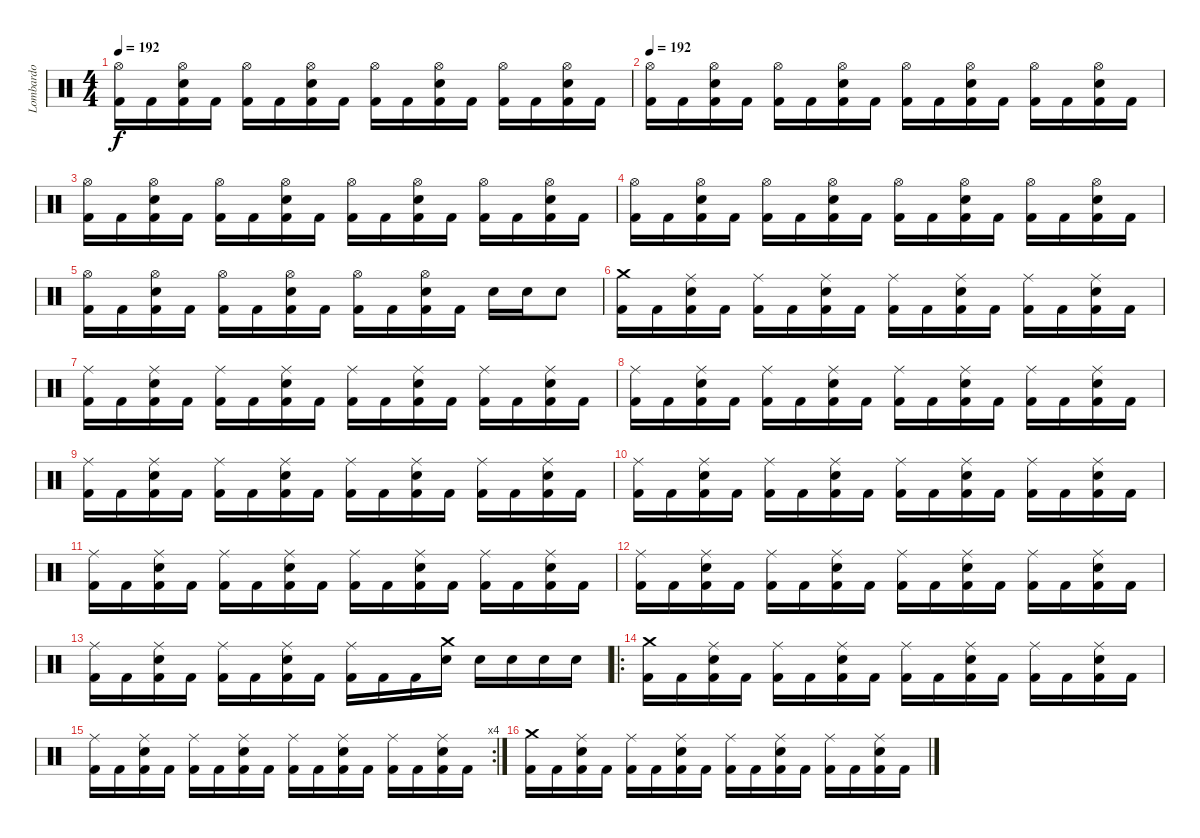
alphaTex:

\track ("Lombardo" "Lombardo") {instrument percussion}
\staff {score}
\articulation defaults
\ts (4 4)
\tempo 192
\clef neutral
\ks c
("Hi-Hat (open)" "Kick (hit) 2").16{dy f} "Kick (hit) 2".16 ("Hi-Hat (open)" "Snare (hit) 2" "Kick (hit) 2").16 "Kick (hit) 2".16 ("Hi-Hat (open)" "Kick (hit) 2").16 "Kick (hit) 2".16 ("Hi-Hat (open)" "Snare (hit) 2" "Kick (hit) 2").16 "Kick (hit) 2".16 ("Hi-Hat (open)" "Kick (hit) 2").16 "Kick (hit) 2".16 ("Hi-Hat (open)" "Snare (hit) 2" "Kick (hit) 2").16 "Kick (hit) 2".16 ("Hi-Hat (open)" "Kick (hit) 2").16 "Kick (hit) 2".16 ("Hi-Hat (open)" "Snare (hit) 2" "Kick (hit) 2").16 "Kick (hit) 2".16 |
\tempo 192
("Hi-Hat (open)" "Kick (hit) 2").16 "Kick (hit) 2".16 ("Hi-Hat (open)" "Snare (hit) 2" "Kick (hit) 2").16 "Kick (hit) 2".16 ("Hi-Hat (open)" "Kick (hit) 2").16 "Kick (hit) 2".16 ("Hi-Hat (open)" "Snare (hit) 2" "Kick (hit) 2").16 "Kick (hit) 2".16 ("Hi-Hat (open)" "Kick (hit) 2").16 "Kick (hit) 2".16 ("Hi-Hat (open)" "Snare (hit) 2" "Kick (hit) 2").16 "Kick (hit) 2".16 ("Hi-Hat (open)" "Kick (hit) 2").16 "Kick (hit) 2".16 ("Hi-Hat (open)" "Snare (hit) 2" "Kick (hit) 2").16 "Kick (hit) 2".16 |
("Hi-Hat (open)" "Kick (hit) 2").16 "Kick (hit) 2".16 ("Hi-Hat (open)" "Snare (hit) 2" "Kick (hit) 2").16 "Kick (hit) 2".16 ("Hi-Hat (open)" "Kick (hit) 2").16 "Kick (hit) 2".16 ("Hi-Hat (open)" "Snare (hit) 2" "Kick (hit) 2").16 "Kick (hit) 2".16 ("Hi-Hat (open)" "Kick (hit) 2").16 "Kick (hit) 2".16 ("Hi-Hat (open)" "Snare (hit) 2" "Kick (hit) 2").16 "Kick (hit) 2".16 ("Hi-Hat (open)" "Kick (hit) 2").16 "Kick (hit) 2".16 ("Hi-Hat (open)" "Snare (hit) 2" "Kick (hit) 2").16 "Kick (hit) 2".16 |
("Hi-Hat (open)" "Kick (hit) 2").16 "Kick (hit) 2".16 ("Hi-Hat (open)" "Snare (hit) 2" "Kick (hit) 2").16 "Kick (hit) 2".16 ("Hi-Hat (open)" "Kick (hit) 2").16 "Kick (hit) 2".16 ("Hi-Hat (open)" "Snare (hit) 2" "Kick (hit) 2").16 "Kick (hit) 2".16 ("Hi-Hat (open)" "Kick (hit) 2").16 "Kick (hit) 2".16 ("Hi-Hat (open)" "Snare (hit) 2" "Kick (hit) 2").16 "Kick (hit) 2".16 ("Hi-Hat (open)" "Kick (hit) 2").16 "Kick (hit) 2".16 ("Hi-Hat (open)" "Snare (hit) 2" "Kick (hit) 2").16 "Kick (hit) 2".16 |
("Hi-Hat (open)" "Kick (hit) 2").16 "Kick (hit) 2".16 ("Hi-Hat (open)" "Snare (hit) 2" "Kick (hit) 2").16 "Kick (hit) 2".16 ("Hi-Hat (open)" "Kick (hit) 2").16 "Kick (hit) 2".16 ("Hi-Hat (open)" "Snare (hit) 2" "Kick (hit) 2").16 "Kick (hit) 2".16 ("Hi-Hat (open)" "Kick (hit) 2").16 "Kick (hit) 2".16 ("Hi-Hat (open)" "Snare (hit) 2" "Kick (hit) 2").16 "Kick (hit) 2".16 "Snare (hit) 2".16 "Snare (hit) 2".16 "Snare (hit) 2".8 |
("Crash medium (hit)" "Kick (hit) 2").16 "Kick (hit) 2".16 ("Ride (middle)" "Snare (hit) 2" "Kick (hit) 2").16 "Kick (hit) 2".16 ("Ride (middle)" "Kick (hit) 2").16 "Kick (hit) 2".16 ("Ride (middle)" "Snare (hit) 2" "Kick (hit) 2").16 "Kick (hit) 2".16 ("Ride (middle)" "Kick (hit) 2").16 "Kick (hit) 2".16 ("Ride (middle)" "Snare (hit) 2" "Kick (hit) 2").16 "Kick (hit) 2".16 ("Ride (middle)" "Kick (hit) 2").16 "Kick (hit) 2".16 ("Ride (middle)" "Snare (hit) 2" "Kick (hit) 2").16 "Kick (hit) 2".16 |
("Ride (middle)" "Kick (hit) 2").16 "Kick (hit) 2".16 ("Ride (middle)" "Snare (hit) 2" "Kick (hit) 2").16 "Kick (hit) 2".16 ("Ride (middle)" "Kick (hit) 2").16 "Kick (hit) 2".16 ("Ride (middle)" "Snare (hit) 2" "Kick (hit) 2").16 "Kick (hit) 2".16 ("Ride (middle)" "Kick (hit) 2").16 "Kick (hit) 2".16 ("Ride (middle)" "Snare (hit) 2" "Kick (hit) 2").16 "Kick (hit) 2".16 ("Ride (middle)" "Kick (hit) 2").16 "Kick (hit) 2".16 ("Ride (middle)" "Snare (hit) 2" "Kick (hit) 2").16 "Kick (hit) 2".16 |
("Ride (middle)" "Kick (hit) 2").16 "Kick (hit) 2".16 ("Ride (middle)" "Snare (hit) 2" "Kick (hit) 2").16 "Kick (hit) 2".16 ("Ride (middle)" "Kick (hit) 2").16 "Kick (hit) 2".16 ("Ride (middle)" "Snare (hit) 2" "Kick (hit) 2").16 "Kick (hit) 2".16 ("Ride (middle)" "Kick (hit) 2").16 "Kick (hit) 2".16 ("Ride (middle)" "Snare (hit) 2" "Kick (hit) 2").16 "Kick (hit) 2".16 ("Ride (middle)" "Kick (hit) 2").16 "Kick (hit) 2".16 ("Ride (middle)" "Snare (hit) 2" "Kick (hit) 2").16 "Kick (hit) 2".16 |
("Ride (middle)" "Kick (hit) 2").16 "Kick (hit) 2".16 ("Ride (middle)" "Snare (hit) 2" "Kick (hit) 2").16 "Kick (hit) 2".16 ("Ride (middle)" "Kick (hit) 2").16 "Kick (hit) 2".16 ("Ride (middle)" "Snare (hit) 2" "Kick (hit) 2").16 "Kick (hit) 2".16 ("Ride (middle)" "Kick (hit) 2").16 "Kick (hit) 2".16 ("Ride (middle)" "Snare (hit) 2" "Kick (hit) 2").16 "Kick (hit) 2".16 ("Ride (middle)" "Kick (hit) 2").16 "Kick (hit) 2".16 ("Ride (middle)" "Snare (hit) 2" "Kick (hit) 2").16 "Kick (hit) 2".16 |
("Ride (middle)" "Kick (hit) 2").16 "Kick (hit) 2".16 ("Ride (middle)" "Snare (hit) 2" "Kick (hit) 2").16 "Kick (hit) 2".16 ("Ride (middle)" "Kick (hit) 2").16 "Kick (hit) 2".16 ("Ride (middle)" "Snare (hit) 2" "Kick (hit) 2").16 "Kick (hit) 2".16 ("Ride (middle)" "Kick (hit) 2").16 "Kick (hit) 2".16 ("Ride (middle)" "Snare (hit) 2" "Kick (hit) 2").16 "Kick (hit) 2".16 ("Ride (middle)" "Kick (hit) 2").16 "Kick (hit) 2".16 ("Ride (middle)" "Snare (hit) 2" "Kick (hit) 2").16 "Kick (hit) 2".16 |
("Ride (middle)" "Kick (hit) 2").16 "Kick (hit) 2".16 ("Ride (middle)" "Snare (hit) 2" "Kick (hit) 2").16 "Kick (hit) 2".16 ("Ride (middle)" "Kick (hit) 2").16 "Kick (hit) 2".16 ("Ride (middle)" "Snare (hit) 2" "Kick (hit) 2").16 "Kick (hit) 2".16 ("Ride (middle)" "Kick (hit) 2").16 "Kick (hit) 2".16 ("Ride (middle)" "Snare (hit) 2" "Kick (hit) 2").16 "Kick (hit) 2".16 ("Ride (middle)" "Kick (hit) 2").16 "Kick (hit) 2".16 ("Ride (middle)" "Snare (hit) 2" "Kick (hit) 2").16 "Kick (hit) 2".16 |
("Ride (middle)" "Kick (hit) 2").16 "Kick (hit) 2".16 ("Ride (middle)" "Snare (hit) 2" "Kick (hit) 2").16 "Kick (hit) 2".16 ("Ride (middle)" "Kick (hit) 2").16 "Kick (hit) 2".16 ("Ride (middle)" "Snare (hit) 2" "Kick (hit) 2").16 "Kick (hit) 2".16 ("Ride (middle)" "Kick (hit) 2").16 "Kick (hit) 2".16 ("Ride (middle)" "Snare (hit) 2" "Kick (hit) 2").16 "Kick (hit) 2".16 ("Ride (middle)" "Kick (hit) 2").16 "Kick (hit) 2".16 ("Ride (middle)" "Snare (hit) 2" "Kick (hit) 2").16 "Kick (hit) 2".16 |
("Ride (middle)" "Kick (hit) 2").16 "Kick (hit) 2".16 ("Ride (middle)" "Snare (hit) 2" "Kick (hit) 2").16 "Kick (hit) 2".16 ("Ride (middle)" "Kick (hit) 2").16 "Kick (hit) 2".16 ("Ride (middle)" "Snare (hit) 2" "Kick (hit) 2").16 "Kick (hit) 2".16 ("Ride (middle)" "Kick (hit) 2").16 "Kick (hit) 2".16 "Kick (hit) 2".16 ("Crash medium (hit)" "Snare (hit) 2").16 "Snare (hit) 2".16 "Snare (hit) 2".16 "Snare (hit) 2".16 "Snare (hit) 2".16 |
\ro
("Crash medium (hit)" "Kick (hit) 2").16 "Kick (hit) 2".16 ("Ride (middle)" "Snare (hit) 2" "Kick (hit) 2").16 "Kick (hit) 2".16 ("Ride (middle)" "Kick (hit) 2").16 "Kick (hit) 2".16 ("Ride (middle)" "Snare (hit) 2" "Kick (hit) 2").16 "Kick (hit) 2".16 ("Ride (middle)" "Kick (hit) 2").16 "Kick (hit) 2".16 ("Ride (middle)" "Snare (hit) 2" "Kick (hit) 2").16 "Kick (hit) 2".16 ("Ride (middle)" "Kick (hit) 2").16 "Kick (hit) 2".16 ("Ride (middle)" "Snare (hit) 2" "Kick (hit) 2").16 "Kick (hit) 2".16 |
\rc 4
("Ride (middle)" "Kick (hit) 2").16 "Kick (hit) 2".16 ("Ride (middle)" "Snare (hit) 2" "Kick (hit) 2").16 "Kick (hit) 2".16 ("Ride (middle)" "Kick (hit) 2").16 "Kick (hit) 2".16 ("Ride (middle)" "Snare (hit) 2" "Kick (hit) 2").16 "Kick (hit) 2".16 ("Ride (middle)" "Kick (hit) 2").16 "Kick (hit) 2".16 ("Ride (middle)" "Snare (hit) 2" "Kick (hit) 2").16 "Kick (hit) 2".16 ("Ride (middle)" "Kick (hit) 2").16 "Kick (hit) 2".16 ("Ride (middle)" "Snare (hit) 2" "Kick (hit) 2").16 "Kick (hit) 2".16 |
("Crash medium (hit)" "Kick (hit) 2").16 "Kick (hit) 2".16 ("Ride (middle)" "Snare (hit) 2" "Kick (hit) 2").16 "Kick (hit) 2".16 ("Ride (middle)" "Kick (hit) 2").16 "Kick (hit) 2".16 ("Ride (middle)" "Snare (hit) 2" "Kick (hit) 2").16 "Kick (hit) 2".16 ("Ride (middle)" "Kick (hit) 2").16 "Kick (hit) 2".16 ("Ride (middle)" "Snare (hit) 2" "Kick (hit) 2").16 "Kick (hit) 2".16 ("Ride (middle)" "Kick (hit) 2").16 "Kick (hit) 2".16 ("Ride (middle)" "Snare (hit) 2" "Kick (hit) 2").16 "Kick (hit) 2".16
